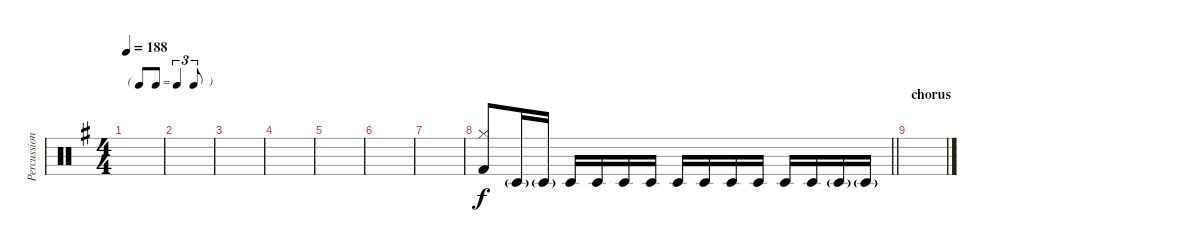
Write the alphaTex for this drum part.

\track ("Percussion" "Percussion") {instrument percussion}
\staff {score}
\articulation defaults
\ts (4 4)
\tf triplet8th
\tempo 188
\clef neutral
\ks g
|
|
|
|
|
|
|
\barLineRight lightlight
("Hi-Hat (closed)" "Kick (hit) 2").8 "Timbale low (hit)"{g}.16 "Timbale low (hit)"{g}.16 "Timbale low (hit)".16 "Timbale low (hit)".16 "Timbale low (hit)".16 "Timbale low (hit)".16 "Timbale low (hit)".16 "Timbale low (hit)".16 "Timbale low (hit)".16 "Timbale low (hit)".16 "Timbale low (hit)".16 "Timbale low (hit)".16 "Timbale low (hit)"{g}.16 "Timbale low (hit)"{g}.16 |
\section ("" "chorus")
